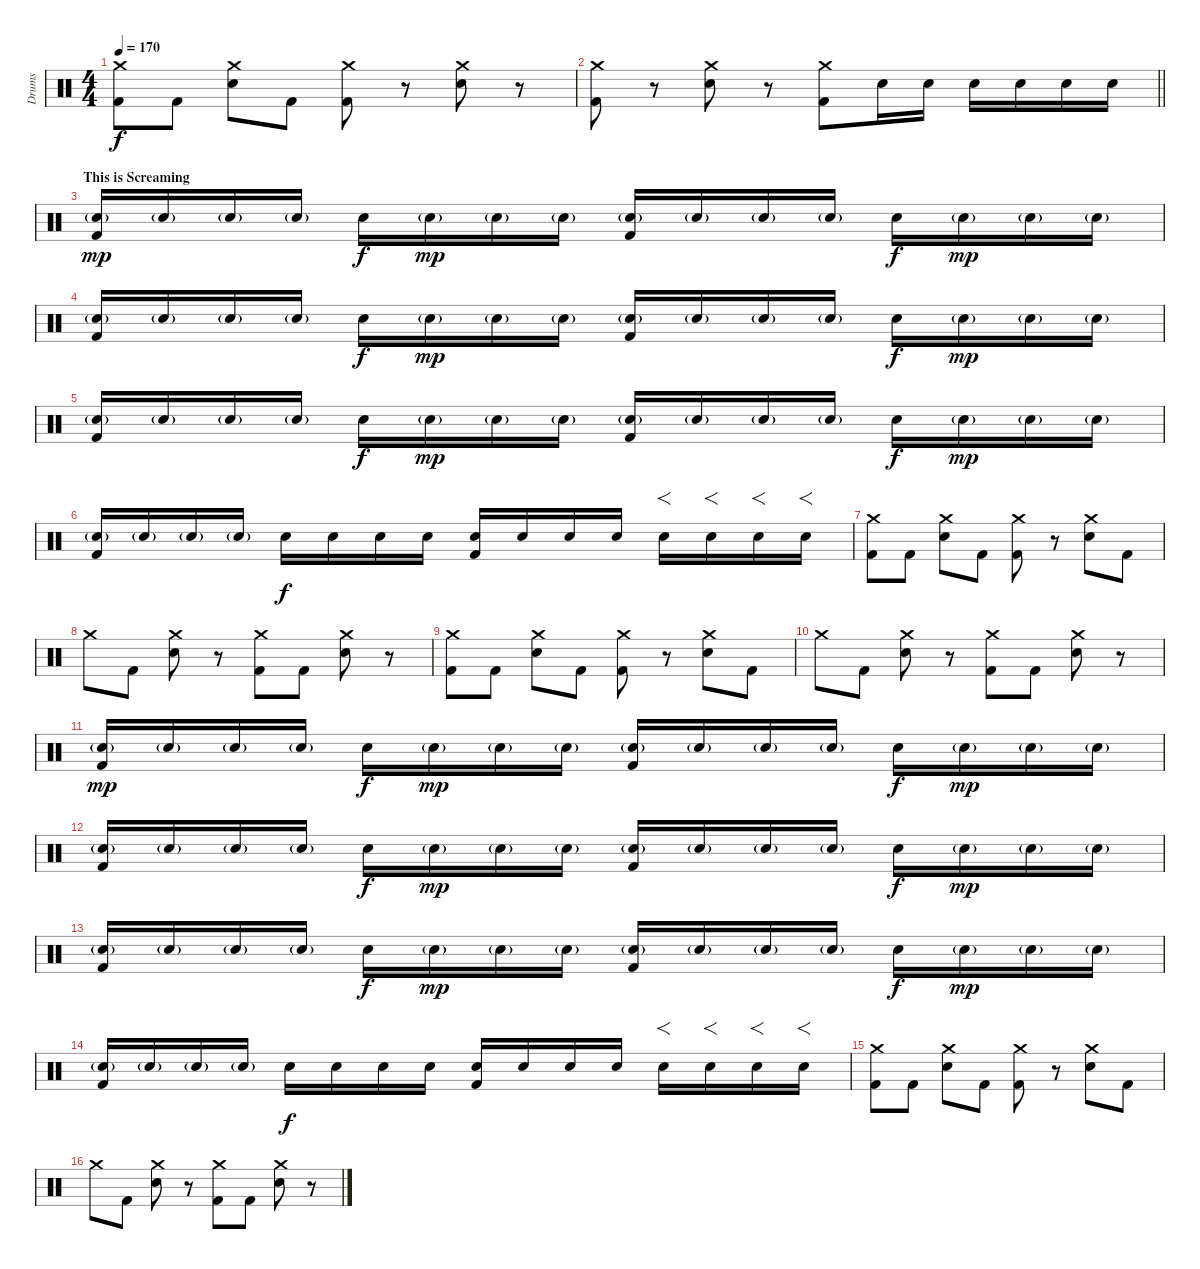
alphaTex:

\track ("Drums" "Drums") {instrument percussion}
\staff {score}
\articulation defaults
\ts (4 4)
\tempo 170
\clef neutral
\ks c
("Crash medium (hit)" "Kick (hit) 2").8{dy f} "Kick (hit) 2".8 ("Crash medium (hit)" "Electric Snare (hit)").8 "Kick (hit) 2".8 ("Crash medium (hit)" "Kick (hit) 2").8 r.8 ("Crash medium (hit)" "Electric Snare (hit)").8 r.8 |
\barLineRight lightlight
("Crash medium (hit)" "Kick (hit) 2").8 r.8 ("Crash medium (hit)" "Electric Snare (hit)").8 r.8 ("Crash medium (hit)" "Kick (hit) 2").8 "Electric Snare (hit)".16 "Electric Snare (hit)".16 "Electric Snare (hit)".16 "Electric Snare (hit)".16 "Electric Snare (hit)".16 "Electric Snare (hit)".16 |
\section ("" "This is Screaming")
("Electric Snare (hit)"{g} "Kick (hit) 2").16{dy mp} "Electric Snare (hit)"{g}.16 "Electric Snare (hit)"{g}.16 "Electric Snare (hit)"{g}.16 "Electric Snare (hit)".16{dy f} "Electric Snare (hit)"{g}.16{dy mp} "Electric Snare (hit)"{g}.16 "Electric Snare (hit)"{g}.16 ("Electric Snare (hit)"{g} "Kick (hit) 2").16 "Electric Snare (hit)"{g}.16 "Electric Snare (hit)"{g}.16 "Electric Snare (hit)"{g}.16 "Electric Snare (hit)".16{dy f} "Electric Snare (hit)"{g}.16{dy mp} "Electric Snare (hit)"{g}.16 "Electric Snare (hit)"{g}.16 |
("Electric Snare (hit)"{g} "Kick (hit) 2").16 "Electric Snare (hit)"{g}.16 "Electric Snare (hit)"{g}.16 "Electric Snare (hit)"{g}.16 "Electric Snare (hit)".16{dy f} "Electric Snare (hit)"{g}.16{dy mp} "Electric Snare (hit)"{g}.16 "Electric Snare (hit)"{g}.16 ("Electric Snare (hit)"{g} "Kick (hit) 2").16 "Electric Snare (hit)"{g}.16 "Electric Snare (hit)"{g}.16 "Electric Snare (hit)"{g}.16 "Electric Snare (hit)".16{dy f} "Electric Snare (hit)"{g}.16{dy mp} "Electric Snare (hit)"{g}.16 "Electric Snare (hit)"{g}.16 |
("Electric Snare (hit)"{g} "Kick (hit) 2").16 "Electric Snare (hit)"{g}.16 "Electric Snare (hit)"{g}.16 "Electric Snare (hit)"{g}.16 "Electric Snare (hit)".16{dy f} "Electric Snare (hit)"{g}.16{dy mp} "Electric Snare (hit)"{g}.16 "Electric Snare (hit)"{g}.16 ("Electric Snare (hit)"{g} "Kick (hit) 2").16 "Electric Snare (hit)"{g}.16 "Electric Snare (hit)"{g}.16 "Electric Snare (hit)"{g}.16 "Electric Snare (hit)".16{dy f} "Electric Snare (hit)"{g}.16{dy mp} "Electric Snare (hit)"{g}.16 "Electric Snare (hit)"{g}.16 |
("Electric Snare (hit)"{g} "Kick (hit) 2").16 "Electric Snare (hit)"{g}.16 "Electric Snare (hit)"{g}.16 "Electric Snare (hit)"{g}.16 "Electric Snare (hit)".16{dy f} "Electric Snare (hit)".16 "Electric Snare (hit)".16 "Electric Snare (hit)".16 ("Electric Snare (hit)" "Kick (hit) 2").16 "Electric Snare (hit)".16 "Electric Snare (hit)".16 "Electric Snare (hit)".16 "Electric Snare (hit)".16{f} "Electric Snare (hit)".16{f} "Electric Snare (hit)".16{f} "Electric Snare (hit)".16{f} |
("Crash medium (hit)" "Kick (hit) 2").8 "Kick (hit) 2".8 ("Crash medium (hit)" "Electric Snare (hit)").8 "Kick (hit) 2".8 ("Crash medium (hit)" "Kick (hit) 2").8 r.8 ("Crash medium (hit)" "Electric Snare (hit)").8 "Kick (hit) 2".8 |
"Crash medium (hit)".8 "Kick (hit) 2".8 ("Crash medium (hit)" "Electric Snare (hit)").8 r.8 ("Crash medium (hit)" "Kick (hit) 2").8 "Kick (hit) 2".8 ("Crash medium (hit)" "Electric Snare (hit)").8 r.8 |
("Crash medium (hit)" "Kick (hit) 2").8 "Kick (hit) 2".8 ("Crash medium (hit)" "Electric Snare (hit)").8 "Kick (hit) 2".8 ("Crash medium (hit)" "Kick (hit) 2").8 r.8 ("Crash medium (hit)" "Electric Snare (hit)").8 "Kick (hit) 2".8 |
"Crash medium (hit)".8 "Kick (hit) 2".8 ("Crash medium (hit)" "Electric Snare (hit)").8 r.8 ("Crash medium (hit)" "Kick (hit) 2").8 "Kick (hit) 2".8 ("Crash medium (hit)" "Electric Snare (hit)").8 r.8 |
("Electric Snare (hit)"{g} "Kick (hit) 2").16{dy mp} "Electric Snare (hit)"{g}.16 "Electric Snare (hit)"{g}.16 "Electric Snare (hit)"{g}.16 "Electric Snare (hit)".16{dy f} "Electric Snare (hit)"{g}.16{dy mp} "Electric Snare (hit)"{g}.16 "Electric Snare (hit)"{g}.16 ("Electric Snare (hit)"{g} "Kick (hit) 2").16 "Electric Snare (hit)"{g}.16 "Electric Snare (hit)"{g}.16 "Electric Snare (hit)"{g}.16 "Electric Snare (hit)".16{dy f} "Electric Snare (hit)"{g}.16{dy mp} "Electric Snare (hit)"{g}.16 "Electric Snare (hit)"{g}.16 |
("Electric Snare (hit)"{g} "Kick (hit) 2").16 "Electric Snare (hit)"{g}.16 "Electric Snare (hit)"{g}.16 "Electric Snare (hit)"{g}.16 "Electric Snare (hit)".16{dy f} "Electric Snare (hit)"{g}.16{dy mp} "Electric Snare (hit)"{g}.16 "Electric Snare (hit)"{g}.16 ("Electric Snare (hit)"{g} "Kick (hit) 2").16 "Electric Snare (hit)"{g}.16 "Electric Snare (hit)"{g}.16 "Electric Snare (hit)"{g}.16 "Electric Snare (hit)".16{dy f} "Electric Snare (hit)"{g}.16{dy mp} "Electric Snare (hit)"{g}.16 "Electric Snare (hit)"{g}.16 |
("Electric Snare (hit)"{g} "Kick (hit) 2").16 "Electric Snare (hit)"{g}.16 "Electric Snare (hit)"{g}.16 "Electric Snare (hit)"{g}.16 "Electric Snare (hit)".16{dy f} "Electric Snare (hit)"{g}.16{dy mp} "Electric Snare (hit)"{g}.16 "Electric Snare (hit)"{g}.16 ("Electric Snare (hit)"{g} "Kick (hit) 2").16 "Electric Snare (hit)"{g}.16 "Electric Snare (hit)"{g}.16 "Electric Snare (hit)"{g}.16 "Electric Snare (hit)".16{dy f} "Electric Snare (hit)"{g}.16{dy mp} "Electric Snare (hit)"{g}.16 "Electric Snare (hit)"{g}.16 |
("Electric Snare (hit)"{g} "Kick (hit) 2").16 "Electric Snare (hit)"{g}.16 "Electric Snare (hit)"{g}.16 "Electric Snare (hit)"{g}.16 "Electric Snare (hit)".16{dy f} "Electric Snare (hit)".16 "Electric Snare (hit)".16 "Electric Snare (hit)".16 ("Electric Snare (hit)" "Kick (hit) 2").16 "Electric Snare (hit)".16 "Electric Snare (hit)".16 "Electric Snare (hit)".16 "Electric Snare (hit)".16{f} "Electric Snare (hit)".16{f} "Electric Snare (hit)".16{f} "Electric Snare (hit)".16{f} |
("Crash medium (hit)" "Kick (hit) 2").8 "Kick (hit) 2".8 ("Crash medium (hit)" "Electric Snare (hit)").8 "Kick (hit) 2".8 ("Crash medium (hit)" "Kick (hit) 2").8 r.8 ("Crash medium (hit)" "Electric Snare (hit)").8 "Kick (hit) 2".8 |
"Crash medium (hit)".8 "Kick (hit) 2".8 ("Crash medium (hit)" "Electric Snare (hit)").8 r.8 ("Crash medium (hit)" "Kick (hit) 2").8 "Kick (hit) 2".8 ("Crash medium (hit)" "Electric Snare (hit)").8 r.8
